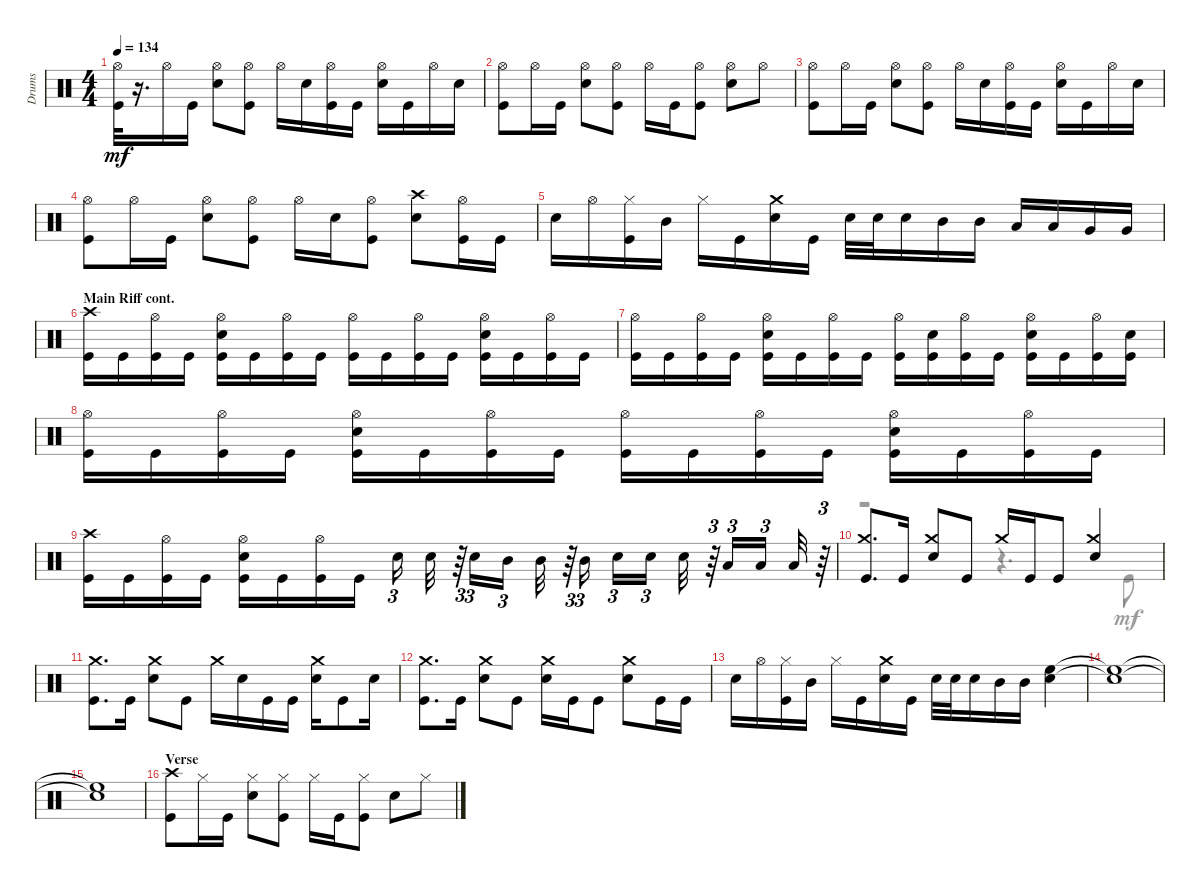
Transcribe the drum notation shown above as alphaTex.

\track ("Drums" "Drums") {instrument percussion}
\staff {score}
\articulation defaults
\voice
\ts (4 4)
\tempo 134
\clef neutral
\ks aminor
("Hi-Hat (open)" "Kick (hit)").32{dy mf} r.16{d} "Hi-Hat (open)".16 "Kick (hit)".16 ("Hi-Hat (open)" "Snare (hit) 2").8 ("Hi-Hat (open)" "Kick (hit)").8 "Hi-Hat (open)".16 "Snare (hit) 2".16 ("Hi-Hat (open)" "Kick (hit)").16 "Kick (hit)".16 ("Snare (hit) 2" "Hi-Hat (open)").16 "Kick (hit)".16 "Hi-Hat (open)".16 "Snare (hit) 2".16 |
("Hi-Hat (open)" "Kick (hit)").8 "Hi-Hat (open)".16 "Kick (hit)".16 ("Snare (hit) 2" "Hi-Hat (open)").8 ("Hi-Hat (open)" "Kick (hit)").8 "Hi-Hat (open)".16 "Kick (hit)".16 ("Hi-Hat (open)" "Kick (hit)").8 ("Snare (hit) 2" "Hi-Hat (open)").8 "Hi-Hat (open)".8 |
("Kick (hit)" "Hi-Hat (open)").8 "Hi-Hat (open)".16 "Kick (hit)".16 ("Snare (hit) 2" "Hi-Hat (open)").8 ("Hi-Hat (open)" "Kick (hit)").8 "Hi-Hat (open)".16 "Snare (hit) 2".16 ("Hi-Hat (open)" "Kick (hit)").16 "Kick (hit)".16 ("Snare (hit) 2" "Hi-Hat (open)").16 "Kick (hit)".16 "Hi-Hat (open)".16 "Snare (hit) 2".16 |
("Kick (hit)" "Hi-Hat (open)").8 "Hi-Hat (open)".16 "Kick (hit)".16 ("Hi-Hat (open)" "Snare (hit) 2").8 ("Hi-Hat (open)" "Kick (hit)").8 "Hi-Hat (open)".16 "Snare (hit) 2".16 ("Kick (hit)" "Hi-Hat (open)").8 ("Crash high (hit)" "Snare (hit) 2").8 ("Hi-Hat (open)" "Kick (hit)").16 "Kick (hit)".16 |
"Snare (hit) 2".16 "Hi-Hat (open)".16 ("Kick (hit)" "Hi-Hat (closed)").16 "Mid Tom (hit)".16 "Hi-Hat (closed)".16 "Kick (hit)".16 ("Crash medium (hit)" "Snare (hit) 2").16 "Kick (hit)".16 "Snare (hit) 2".32 "Snare (hit) 2".32 "Snare (hit) 2".16 "Mid Tom (hit)".16 "Mid Tom (hit)".16 "Low Tom (hit)".16 "Low Tom (hit)".16 "Very Low Tom (hit)".16 "Very Low Tom (hit)".16 |
\section ("" "Main Riff cont.")
("Crash high (hit)" "Kick (hit)").16 "Kick (hit)".16 ("Hi-Hat (open)" "Kick (hit)").16 "Kick (hit)".16 ("Snare (hit) 2" "Hi-Hat (open)" "Kick (hit)").16 "Kick (hit)".16 ("Kick (hit)" "Hi-Hat (open)").16 "Kick (hit)".16 ("Hi-Hat (open)" "Kick (hit)").16 "Kick (hit)".16 ("Kick (hit)" "Hi-Hat (open)").16 "Kick (hit)".16 ("Snare (hit) 2" "Hi-Hat (open)" "Kick (hit)").16 "Kick (hit)".16 ("Hi-Hat (open)" "Kick (hit)").16 "Kick (hit)".16 |
("Kick (hit)" "Hi-Hat (open)").16 "Kick (hit)".16 ("Kick (hit)" "Hi-Hat (open)").16 "Kick (hit)".16 ("Snare (hit) 2" "Kick (hit)" "Hi-Hat (open)").16 "Kick (hit)".16 ("Kick (hit)" "Hi-Hat (open)").16 "Kick (hit)".16 ("Hi-Hat (open)" "Kick (hit)").16 ("Snare (hit) 2" "Kick (hit)").16 ("Hi-Hat (open)" "Kick (hit)").16 "Kick (hit)".16 ("Snare (hit) 2" "Hi-Hat (open)" "Kick (hit)").16 "Kick (hit)".16 ("Kick (hit)" "Hi-Hat (open)").16 ("Snare (hit) 2" "Kick (hit)").16 |
("Hi-Hat (open)" "Kick (hit)").16 "Kick (hit)".16 ("Hi-Hat (open)" "Kick (hit)").16 "Kick (hit)".16 ("Snare (hit) 2" "Hi-Hat (open)" "Kick (hit)").16 "Kick (hit)".16 ("Kick (hit)" "Hi-Hat (open)").16 "Kick (hit)".16 ("Hi-Hat (open)" "Kick (hit)").16 "Kick (hit)".16 ("Kick (hit)" "Hi-Hat (open)").16 "Kick (hit)".16 ("Snare (hit) 2" "Hi-Hat (open)" "Kick (hit)").16 "Kick (hit)".16 ("Hi-Hat (open)" "Kick (hit)").16 "Kick (hit)".16 |
("Kick (hit)" "Crash high (hit)").16 "Kick (hit)".16 ("Kick (hit)" "Hi-Hat (open)").16 "Kick (hit)".16 ("Snare (hit) 2" "Kick (hit)" "Hi-Hat (open)").16 "Kick (hit)".16 ("Hi-Hat (open)" "Kick (hit)").16 "Kick (hit)".16 "Snare (hit) 2".16{tu (3 2)} "Snare (hit) 2".32 r.64{tu (3 2)} "Snare (hit) 2".16{tu (3 2)} "Mid Tom (hit)".16{tu (3 2)} "Mid Tom (hit)".32 r.64{tu (3 2)} "Mid Tom (hit)".16{tu (3 2)} "Snare (hit) 2".16{tu (3 2)} "Snare (hit) 2".16{tu (3 2)} "Snare (hit) 2".32 r.64{tu (3 2)} "Low Tom (hit)".16{tu (3 2)} "Low Tom (hit)".16{tu (3 2)} "Low Tom (hit)".32 r.64{tu (3 2)} |
("Crash medium (hit)" "Kick (hit)").8{d} "Kick (hit)".16 ("Snare (hit) 2" "Crash medium (hit)").8 "Kick (hit)".8 "Crash medium (hit)".16 "Kick (hit)".16 "Kick (hit)".8 ("Crash medium (hit)" "Snare (hit) 2").4 |
("Crash medium (hit)" "Kick (hit)").8{d} "Kick (hit)".16 ("Crash medium (hit)" "Snare (hit) 2").8 "Kick (hit)".8 "Crash medium (hit)".16 "Snare (hit) 2".16 "Kick (hit)".16 "Kick (hit)".16 ("Snare (hit) 2" "Crash medium (hit)").16 "Kick (hit)".8 "Snare (hit) 2".16 |
("Crash medium (hit)" "Kick (hit)").8{d} "Kick (hit)".16 ("Crash medium (hit)" "Snare (hit) 2").8 "Kick (hit)".8 ("Crash medium (hit)" "Snare (hit) 2").16 "Kick (hit)".16 "Kick (hit)".8 ("Snare (hit) 2" "Crash medium (hit)").8 "Kick (hit)".16 "Kick (hit)".16 |
"Snare (hit) 2".16 "Hi-Hat (open)".16 ("Hi-Hat (closed)" "Kick (hit)").16 "Mid Tom (hit)".16 "Hi-Hat (closed)".16 "Kick (hit)".16 ("Snare (hit) 2" "Crash medium (hit)").16 "Kick (hit)".16 "Snare (hit) 2".32 "Snare (hit) 2".32 "Snare (hit) 2".16 "Mid Tom (hit)".16 "Mid Tom (hit)".16 ("High Floor Tom (hit)" "Snare (hit) 2").4 |
("High Floor Tom (hit)"{t} "Snare (hit) 2"{t}).1 |
("High Floor Tom (hit)"{t} "Snare (hit) 2"{t}).1 |
\section ("" "Verse")
("Crash high (hit)" "Kick (hit)").8 "Hi-Hat (closed)".16 "Kick (hit)".16 ("Hi-Hat (closed)" "Snare (hit) 2").8 ("Kick (hit)" "Hi-Hat (closed)").8 "Hi-Hat (closed)".16 "Kick (hit)".16 ("Hi-Hat (closed)" "Kick (hit)").8 "Snare (hit) 2".8 "Hi-Hat (closed)".8
\voice
\clef neutral
\ottava regular
\simile none
\ks aminor
|
|
|
|
|
|
|
|
|
r.2 r.4{d} "Kick (hit)".8 |
|
|
|
|
|
